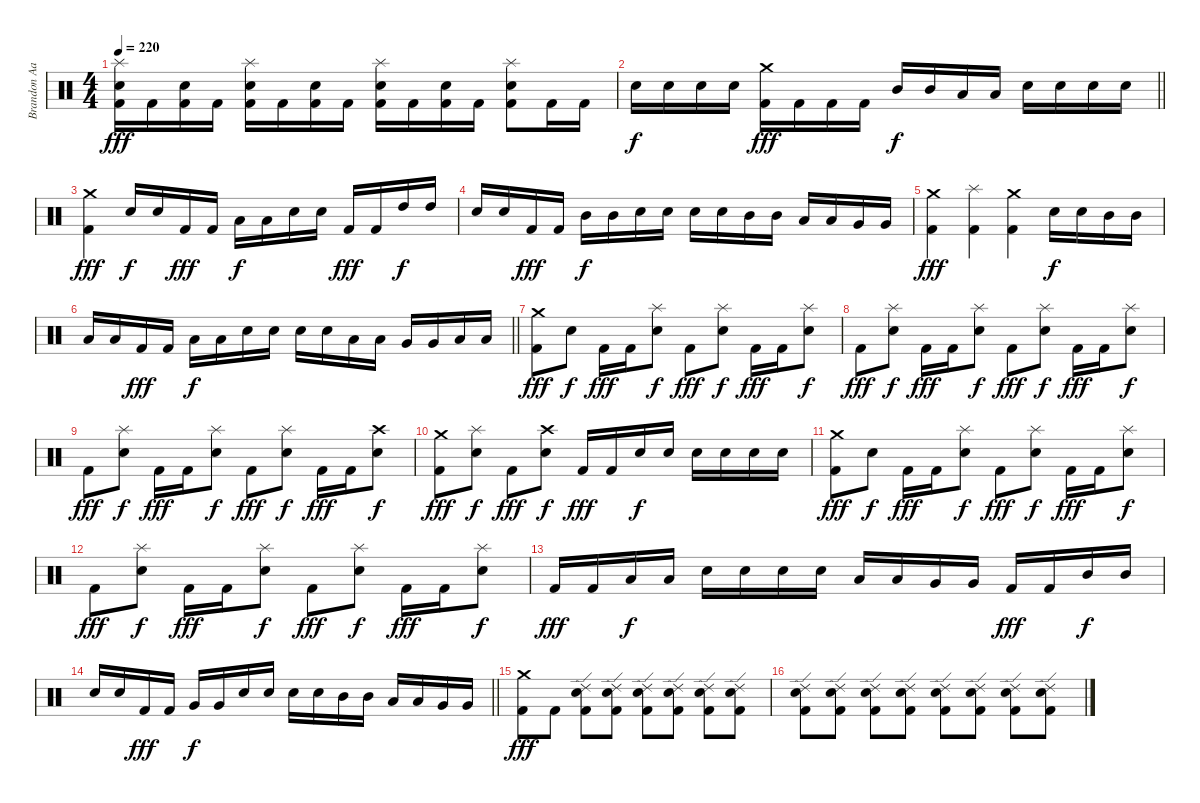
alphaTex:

\track ("Brandon Aaron Burkhalter" "Brandon Aa") {instrument percussion}
\staff {score}
\articulation defaults
\ts (4 4)
\tempo 220
\clef neutral
\ks c
("Splash (hit)" "Snare (hit) 2" "Kick (hit) 2").16{dy fff} "Kick (hit) 2".16 ("Snare (hit) 2" "Kick (hit) 2").16 "Kick (hit) 2".16 ("Splash (hit)" "Snare (hit) 2" "Kick (hit) 2").16 "Kick (hit) 2".16 ("Snare (hit) 2" "Kick (hit) 2").16 "Kick (hit) 2".16 ("Splash (hit)" "Snare (hit) 2" "Kick (hit) 2").16 "Kick (hit) 2".16 ("Snare (hit) 2" "Kick (hit) 2").16 "Kick (hit) 2".16 ("Splash (hit)" "Snare (hit) 2" "Kick (hit) 2").8 "Kick (hit) 2".16 "Kick (hit) 2".16 |
\barLineRight lightlight "Snare (hit) 2".16{dy f} "Snare (hit) 2".16 "Snare (hit) 2".16 "Snare (hit) 2".16
("Crash medium (hit)" "Kick (hit) 2").16{dy fff} "Kick (hit) 2".16 "Kick (hit) 2".16 "Kick (hit) 2".16 "Mid Tom (hit)".16{dy f} "Mid Tom (hit)".16 "Low Tom (hit)".16 "Low Tom (hit)".16 "Snare (hit) 2".16 "Snare (hit) 2".16 "Snare (hit) 2".16 "Snare (hit) 2".16 |
("Crash medium (hit)" "Kick (hit) 2").4{dy fff} "Snare (hit) 2".16{dy f} "Snare (hit) 2".16 "Kick (hit) 2".16{dy fff} "Kick (hit) 2".16 "Low Tom (hit)".16{dy f} "Low Tom (hit)".16 "Snare (hit) 2".16 "Snare (hit) 2".16 "Kick (hit) 2".16{dy fff} "Kick (hit) 2".16 "High Tom (hit)".16{dy f} "High Tom (hit)".16 |
"Snare (hit) 2".16 "Snare (hit) 2".16 "Kick (hit) 2".16{dy fff} "Kick (hit) 2".16 "Mid Tom (hit)".16{dy f} "Mid Tom (hit)".16 "Snare (hit) 2".16 "Snare (hit) 2".16 "Snare (hit) 2".16 "Snare (hit) 2".16 "Mid Tom (hit)".16 "Mid Tom (hit)".16 "Low Tom (hit)".16 "Low Tom (hit)".16 "Very Low Tom (hit)".16 "Very Low Tom (hit)".16 |
("Crash medium (hit)" "Kick (hit) 2").4{dy fff} ("Splash (hit)" "Kick (hit) 2").4 ("Crash medium (hit)" "Kick (hit) 2").4 "Snare (hit) 2".16{dy f} "Snare (hit) 2".16 "Mid Tom (hit)".16 "Mid Tom (hit)".16 |
\barLineRight lightlight "Low Tom (hit)".16 "Low Tom (hit)".16 "Kick (hit) 2".16{dy fff} "Kick (hit) 2".16 "Low Tom (hit)".16{dy f} "Low Tom (hit)".16 "Snare (hit) 2".16 "Snare (hit) 2".16 "Snare (hit) 2".16 "Snare (hit) 2".16 "Low Tom (hit)".16 "Low Tom (hit)".16 "Very Low Tom (hit)".16 "Very Low Tom (hit)".16 "Low Floor Tom (hit)".16 "Low Floor Tom (hit)".16
|
("Crash medium (hit)" "Kick (hit) 2").8{dy fff} "Snare (hit) 2".8{dy f} "Kick (hit) 2".16{dy fff} "Kick (hit) 2".16 ("Splash (hit)" "Snare (hit) 2").8{dy f} "Kick (hit) 2".8{dy fff} ("Splash (hit)" "Snare (hit) 2").8{dy f} "Kick (hit) 2".16{dy fff} "Kick (hit) 2".16 ("Splash (hit)" "Snare (hit) 2").8{dy f} |
"Kick (hit) 2".8{dy fff} ("Splash (hit)" "Snare (hit) 2").8{dy f} "Kick (hit) 2".16{dy fff} "Kick (hit) 2".16 ("Splash (hit)" "Snare (hit) 2").8{dy f} "Kick (hit) 2".8{dy fff} ("Splash (hit)" "Snare (hit) 2").8{dy f} "Kick (hit) 2".16{dy fff} "Kick (hit) 2".16 ("Splash (hit)" "Snare (hit) 2").8{dy f} |
"Kick (hit) 2".8{dy fff} ("Splash (hit)" "Snare (hit) 2").8{dy f} "Kick (hit) 2".16{dy fff} "Kick (hit) 2".16 ("Splash (hit)" "Snare (hit) 2").8{dy f} "Kick (hit) 2".8{dy fff} ("Splash (hit)" "Snare (hit) 2").8{dy f} "Kick (hit) 2".16{dy fff} "Kick (hit) 2".16 ("Crash high (hit)" "Snare (hit) 2").8{dy f} |
("Crash medium (hit)" "Kick (hit) 2").8{dy fff} ("Splash (hit)" "Snare (hit) 2").8{dy f} "Kick (hit) 2".8{dy fff} ("Crash high (hit)" "Snare (hit) 2").8{dy f} "Kick (hit) 2".16{dy fff} "Kick (hit) 2".16 "Snare (hit) 2".16{dy f} "Snare (hit) 2".16 "Snare (hit) 2".16 "Snare (hit) 2".16 "Snare (hit) 2".16 "Snare (hit) 2".16 |
("Crash medium (hit)" "Kick (hit) 2").8{dy fff} "Snare (hit) 2".8{dy f} "Kick (hit) 2".16{dy fff} "Kick (hit) 2".16 ("Splash (hit)" "Snare (hit) 2").8{dy f} "Kick (hit) 2".8{dy fff} ("Splash (hit)" "Snare (hit) 2").8{dy f} "Kick (hit) 2".16{dy fff} "Kick (hit) 2".16 ("Splash (hit)" "Snare (hit) 2").8{dy f} |
"Kick (hit) 2".8{dy fff} ("Splash (hit)" "Snare (hit) 2").8{dy f} "Kick (hit) 2".16{dy fff} "Kick (hit) 2".16 ("Splash (hit)" "Snare (hit) 2").8{dy f} "Kick (hit) 2".8{dy fff} ("Splash (hit)" "Snare (hit) 2").8{dy f} "Kick (hit) 2".16{dy fff} "Kick (hit) 2".16 ("Splash (hit)" "Snare (hit) 2").8{dy f} |
"Kick (hit) 2".16{dy fff} "Kick (hit) 2".16 "Low Tom (hit)".16{dy f} "Low Tom (hit)".16 "Snare (hit) 2".16 "Snare (hit) 2".16 "Snare (hit) 2".16 "Snare (hit) 2".16 "Low Tom (hit)".16 "Low Tom (hit)".16 "Very Low Tom (hit)".16 "Very Low Tom (hit)".16 "Kick (hit) 2".16{dy fff} "Kick (hit) 2".16 "Mid Tom (hit)".16{dy f} "Mid Tom (hit)".16 |
\barLineRight lightlight "Snare (hit) 2".16 "Snare (hit) 2".16 "Kick (hit) 2".16{dy fff} "Kick (hit) 2".16 "Very Low Tom (hit)".16{dy f} "Very Low Tom (hit)".16 "Snare (hit) 2".16 "Snare (hit) 2".16 "Snare (hit) 2".16 "Snare (hit) 2".16 "Mid Tom (hit)".16 "Mid Tom (hit)".16 "Low Tom (hit)".16 "Low Tom (hit)".16 "Very Low Tom (hit)".16 "Very Low Tom (hit)".16
|
("Crash medium (hit)" "Kick (hit) 2").8{dy fff} "Kick (hit) 2".8 ("Ride (edge) 2" "Snare (hit) 2" "Kick (hit) 2").8 ("Ride (edge) 2" "Snare (hit) 2" "Kick (hit) 2").8 ("Ride (edge) 2" "Snare (hit) 2" "Kick (hit) 2").8 ("Ride (edge) 2" "Snare (hit) 2" "Kick (hit) 2").8 ("Ride (edge) 2" "Snare (hit) 2" "Kick (hit) 2").8 ("Ride (edge) 2" "Snare (hit) 2" "Kick (hit) 2").8 |
("Ride (edge) 2" "Snare (hit) 2" "Kick (hit) 2").8 ("Ride (edge) 2" "Snare (hit) 2" "Kick (hit) 2").8 ("Ride (edge) 2" "Snare (hit) 2" "Kick (hit) 2").8 ("Ride (edge) 2" "Snare (hit) 2" "Kick (hit) 2").8 ("Ride (edge) 2" "Snare (hit) 2" "Kick (hit) 2").8 ("Ride (edge) 2" "Snare (hit) 2" "Kick (hit) 2").8 ("Ride (edge) 2" "Snare (hit) 2" "Kick (hit) 2").8 ("Ride (edge) 2" "Snare (hit) 2" "Kick (hit) 2").8
